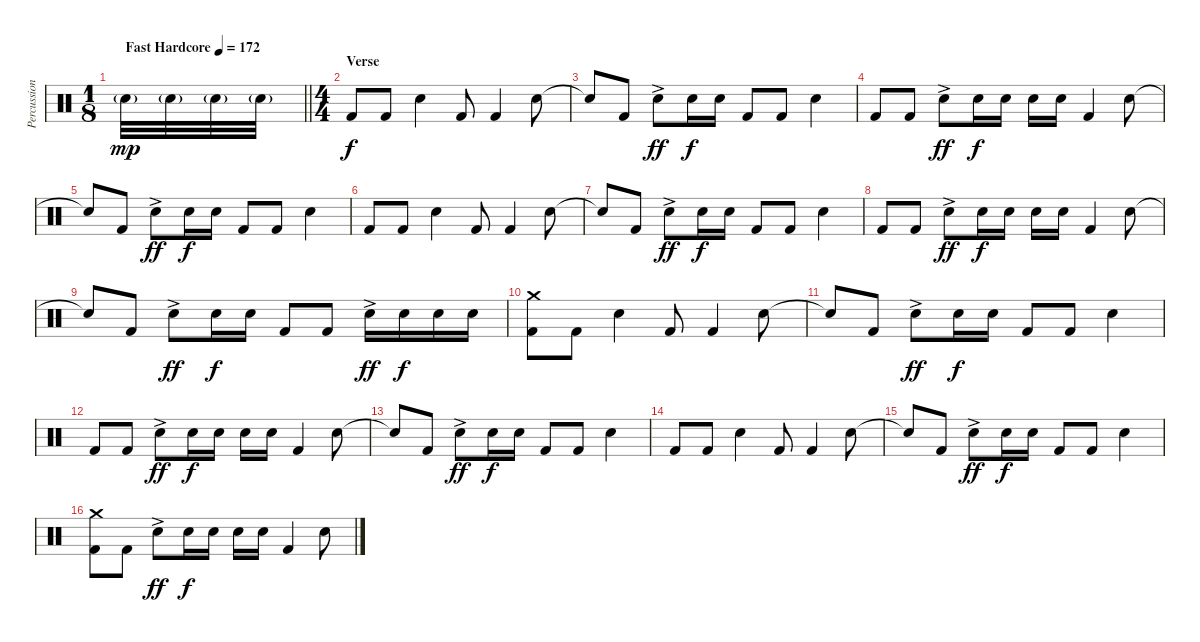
\track ("Percussion" "Percussion") {instrument percussion}
\staff {score}
\articulation defaults
\ts (1 8)
\tempo (172 "Fast Hardcore")
\clef neutral
\barLineRight lightlight
\ks aminor "Electric Snare (hit)"{g}.32{dy mp} "Electric Snare (hit)"{g}.32 "Electric Snare (hit)"{g}.32 "Electric Snare (hit)"{g}.32
|
\ts (4 4)
\section ("" "Verse")
"Kick (hit) 2".8{dy f volume 12} "Kick (hit) 2".8 "Electric Snare (hit)".4 "Kick (hit) 2".8 "Kick (hit) 2".4 "Electric Snare (hit)".8 |
"Electric Snare (hit)"{t}.8 "Kick (hit) 2".8 "Electric Snare (hit)"{ac}.8{dy ff} "Electric Snare (hit)".16{dy f} "Electric Snare (hit)".16 "Kick (hit) 2".8 "Kick (hit) 2".8 "Electric Snare (hit)".4 |
"Kick (hit) 2".8 "Kick (hit) 2".8 "Electric Snare (hit)"{ac}.8{dy ff} "Electric Snare (hit)".16{dy f} "Electric Snare (hit)".16 "Electric Snare (hit)".16 "Electric Snare (hit)".16 "Kick (hit) 2".4 "Electric Snare (hit)".8 |
"Electric Snare (hit)"{t}.8 "Kick (hit) 2".8 "Electric Snare (hit)"{ac}.8{dy ff} "Electric Snare (hit)".16{dy f} "Electric Snare (hit)".16 "Kick (hit) 2".8 "Kick (hit) 2".8 "Electric Snare (hit)".4 |
"Kick (hit) 2".8 "Kick (hit) 2".8 "Electric Snare (hit)".4 "Kick (hit) 2".8 "Kick (hit) 2".4 "Electric Snare (hit)".8 |
"Electric Snare (hit)"{t}.8 "Kick (hit) 2".8 "Electric Snare (hit)"{ac}.8{dy ff} "Electric Snare (hit)".16{dy f} "Electric Snare (hit)".16 "Kick (hit) 2".8 "Kick (hit) 2".8 "Electric Snare (hit)".4 |
"Kick (hit) 2".8 "Kick (hit) 2".8 "Electric Snare (hit)"{ac}.8{dy ff} "Electric Snare (hit)".16{dy f} "Electric Snare (hit)".16 "Electric Snare (hit)".16 "Electric Snare (hit)".16 "Kick (hit) 2".4 "Electric Snare (hit)".8 |
"Electric Snare (hit)"{t}.8 "Kick (hit) 2".8 "Electric Snare (hit)"{ac}.8{dy ff} "Electric Snare (hit)".16{dy f} "Electric Snare (hit)".16 "Kick (hit) 2".8 "Kick (hit) 2".8 "Electric Snare (hit)"{ac}.16{dy ff} "Electric Snare (hit)".16{dy f} "Electric Snare (hit)".16 "Electric Snare (hit)".16 |
("Crash medium (hit)" "Kick (hit) 2").8 "Kick (hit) 2".8 "Electric Snare (hit)".4 "Kick (hit) 2".8 "Kick (hit) 2".4 "Electric Snare (hit)".8 |
"Electric Snare (hit)"{t}.8 "Kick (hit) 2".8 "Electric Snare (hit)"{ac}.8{dy ff} "Electric Snare (hit)".16{dy f} "Electric Snare (hit)".16 "Kick (hit) 2".8 "Kick (hit) 2".8 "Electric Snare (hit)".4 |
"Kick (hit) 2".8 "Kick (hit) 2".8 "Electric Snare (hit)"{ac}.8{dy ff} "Electric Snare (hit)".16{dy f} "Electric Snare (hit)".16 "Electric Snare (hit)".16 "Electric Snare (hit)".16 "Kick (hit) 2".4 "Electric Snare (hit)".8 |
"Electric Snare (hit)"{t}.8 "Kick (hit) 2".8 "Electric Snare (hit)"{ac}.8{dy ff} "Electric Snare (hit)".16{dy f} "Electric Snare (hit)".16 "Kick (hit) 2".8 "Kick (hit) 2".8 "Electric Snare (hit)".4 |
"Kick (hit) 2".8 "Kick (hit) 2".8 "Electric Snare (hit)".4 "Kick (hit) 2".8 "Kick (hit) 2".4 "Electric Snare (hit)".8 |
"Electric Snare (hit)"{t}.8 "Kick (hit) 2".8 "Electric Snare (hit)"{ac}.8{dy ff} "Electric Snare (hit)".16{dy f} "Electric Snare (hit)".16 "Kick (hit) 2".8 "Kick (hit) 2".8 "Electric Snare (hit)".4 |
("Crash medium (hit)" "Kick (hit) 2").8 "Kick (hit) 2".8 "Electric Snare (hit)"{ac}.8{dy ff} "Electric Snare (hit)".16{dy f} "Electric Snare (hit)".16 "Electric Snare (hit)".16 "Electric Snare (hit)".16 "Kick (hit) 2".4 "Electric Snare (hit)".8
